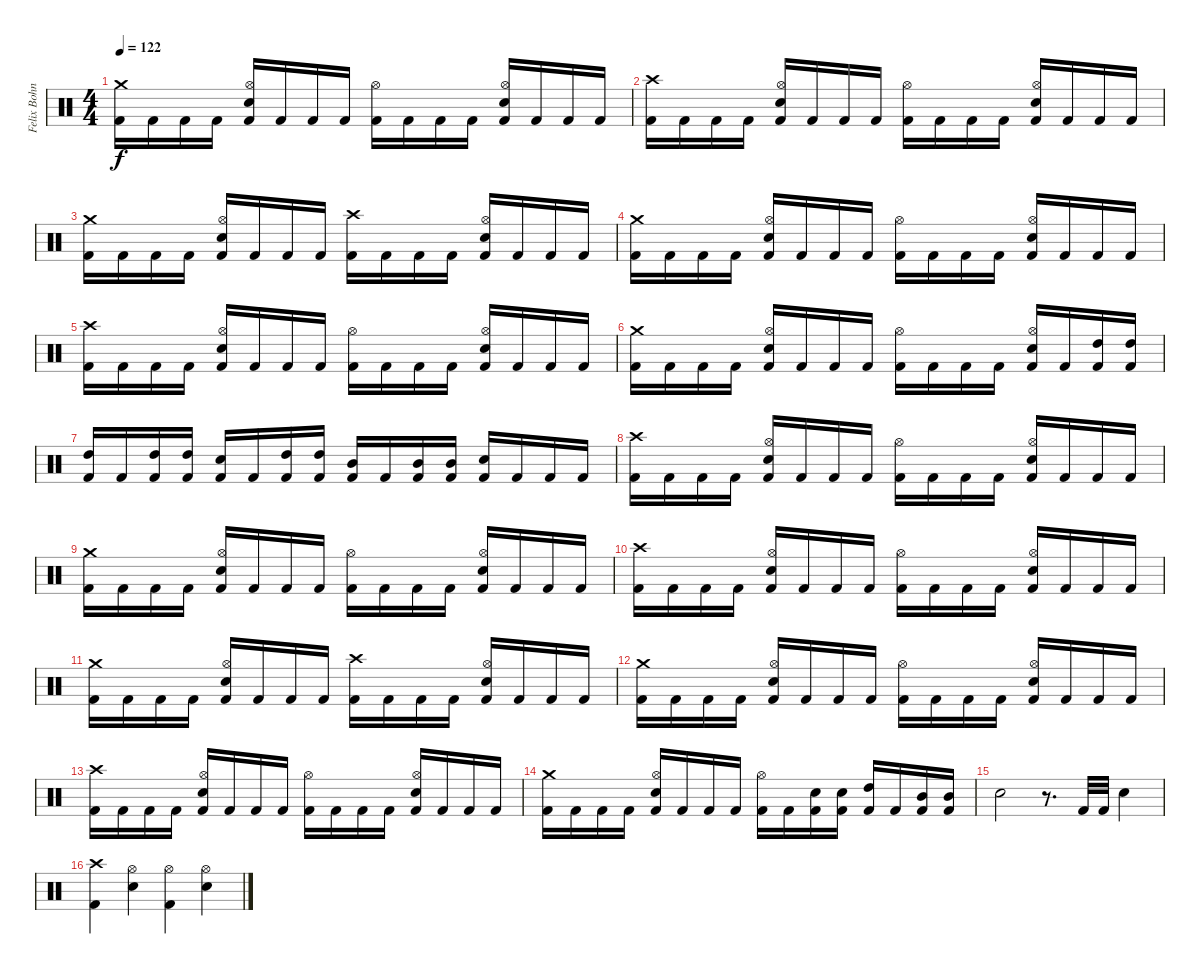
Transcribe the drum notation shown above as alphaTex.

\track ("Felix Bohnke" "Felix Bohn") {instrument percussion}
\staff {score}
\articulation defaults
\ts (4 4)
\tempo 122
\clef neutral
\ks c
("Crash medium (hit)" "Kick (hit) 2").16{dy f} "Kick (hit) 2".16 "Kick (hit) 2".16 "Kick (hit) 2".16 ("Hi-Hat (open)" "Snare (hit) 2" "Kick (hit) 2").16 "Kick (hit) 2".16 "Kick (hit) 2".16 "Kick (hit) 2".16 ("Hi-Hat (open)" "Kick (hit) 2").16 "Kick (hit) 2".16 "Kick (hit) 2".16 "Kick (hit) 2".16 ("Hi-Hat (open)" "Snare (hit) 2" "Kick (hit) 2").16 "Kick (hit) 2".16 "Kick (hit) 2".16 "Kick (hit) 2".16 |
("Crash high (hit)" "Kick (hit) 2").16 "Kick (hit) 2".16 "Kick (hit) 2".16 "Kick (hit) 2".16 ("Hi-Hat (open)" "Snare (hit) 2" "Kick (hit) 2").16 "Kick (hit) 2".16 "Kick (hit) 2".16 "Kick (hit) 2".16 ("Hi-Hat (open)" "Kick (hit) 2").16 "Kick (hit) 2".16 "Kick (hit) 2".16 "Kick (hit) 2".16 ("Hi-Hat (open)" "Snare (hit) 2" "Kick (hit) 2").16 "Kick (hit) 2".16 "Kick (hit) 2".16 "Kick (hit) 2".16 |
("Crash medium (hit)" "Kick (hit) 2").16 "Kick (hit) 2".16 "Kick (hit) 2".16 "Kick (hit) 2".16 ("Hi-Hat (open)" "Snare (hit) 2" "Kick (hit) 2").16 "Kick (hit) 2".16 "Kick (hit) 2".16 "Kick (hit) 2".16 ("Crash high (hit)" "Kick (hit) 2").16 "Kick (hit) 2".16 "Kick (hit) 2".16 "Kick (hit) 2".16 ("Hi-Hat (open)" "Snare (hit) 2" "Kick (hit) 2").16 "Kick (hit) 2".16 "Kick (hit) 2".16 "Kick (hit) 2".16 |
("Crash medium (hit)" "Kick (hit) 2").16 "Kick (hit) 2".16 "Kick (hit) 2".16 "Kick (hit) 2".16 ("Hi-Hat (open)" "Snare (hit) 2" "Kick (hit) 2").16 "Kick (hit) 2".16 "Kick (hit) 2".16 "Kick (hit) 2".16 ("Hi-Hat (open)" "Kick (hit) 2").16 "Kick (hit) 2".16 "Kick (hit) 2".16 "Kick (hit) 2".16 ("Hi-Hat (open)" "Snare (hit) 2" "Kick (hit) 2").16 "Kick (hit) 2".16 "Kick (hit) 2".16 "Kick (hit) 2".16 |
("Crash high (hit)" "Kick (hit) 2").16 "Kick (hit) 2".16 "Kick (hit) 2".16 "Kick (hit) 2".16 ("Hi-Hat (open)" "Snare (hit) 2" "Kick (hit) 2").16 "Kick (hit) 2".16 "Kick (hit) 2".16 "Kick (hit) 2".16 ("Hi-Hat (open)" "Kick (hit) 2").16 "Kick (hit) 2".16 "Kick (hit) 2".16 "Kick (hit) 2".16 ("Hi-Hat (open)" "Snare (hit) 2" "Kick (hit) 2").16 "Kick (hit) 2".16 "Kick (hit) 2".16 "Kick (hit) 2".16 |
("Crash medium (hit)" "Kick (hit) 2").16 "Kick (hit) 2".16 "Kick (hit) 2".16 "Kick (hit) 2".16 ("Hi-Hat (open)" "Snare (hit) 2" "Kick (hit) 2").16 "Kick (hit) 2".16 "Kick (hit) 2".16 "Kick (hit) 2".16 ("Hi-Hat (open)" "Kick (hit) 2").16 "Kick (hit) 2".16 "Kick (hit) 2".16 "Kick (hit) 2".16 ("Hi-Hat (open)" "Snare (hit) 2" "Kick (hit) 2").16 "Kick (hit) 2".16 ("High Tom (hit)" "Kick (hit) 2").16 ("High Tom (hit)" "Kick (hit) 2").16 |
("High Tom (hit)" "Kick (hit) 2").16 "Kick (hit) 2".16 ("High Tom (hit)" "Kick (hit) 2").16 ("High Tom (hit)" "Kick (hit) 2").16 ("Snare (hit) 2" "Kick (hit) 2").16 "Kick (hit) 2".16 ("High Tom (hit)" "Kick (hit) 2").16 ("High Tom (hit)" "Kick (hit) 2").16 ("Mid Tom (hit)" "Kick (hit) 2").16 "Kick (hit) 2".16 ("Mid Tom (hit)" "Kick (hit) 2").16 ("Mid Tom (hit)" "Kick (hit) 2").16 ("Snare (hit) 2" "Kick (hit) 2").16 "Kick (hit) 2".16 "Kick (hit) 2".16 "Kick (hit) 2".16 |
("Crash high (hit)" "Kick (hit) 2").16 "Kick (hit) 2".16 "Kick (hit) 2".16 "Kick (hit) 2".16 ("Hi-Hat (open)" "Snare (hit) 2" "Kick (hit) 2").16 "Kick (hit) 2".16 "Kick (hit) 2".16 "Kick (hit) 2".16 ("Hi-Hat (open)" "Kick (hit) 2").16 "Kick (hit) 2".16 "Kick (hit) 2".16 "Kick (hit) 2".16 ("Hi-Hat (open)" "Snare (hit) 2" "Kick (hit) 2").16 "Kick (hit) 2".16 "Kick (hit) 2".16 "Kick (hit) 2".16 |
("Crash medium (hit)" "Kick (hit) 2").16 "Kick (hit) 2".16 "Kick (hit) 2".16 "Kick (hit) 2".16 ("Hi-Hat (open)" "Snare (hit) 2" "Kick (hit) 2").16 "Kick (hit) 2".16 "Kick (hit) 2".16 "Kick (hit) 2".16 ("Hi-Hat (open)" "Kick (hit) 2").16 "Kick (hit) 2".16 "Kick (hit) 2".16 "Kick (hit) 2".16 ("Hi-Hat (open)" "Snare (hit) 2" "Kick (hit) 2").16 "Kick (hit) 2".16 "Kick (hit) 2".16 "Kick (hit) 2".16 |
("Crash high (hit)" "Kick (hit) 2").16 "Kick (hit) 2".16 "Kick (hit) 2".16 "Kick (hit) 2".16 ("Hi-Hat (open)" "Snare (hit) 2" "Kick (hit) 2").16 "Kick (hit) 2".16 "Kick (hit) 2".16 "Kick (hit) 2".16 ("Hi-Hat (open)" "Kick (hit) 2").16 "Kick (hit) 2".16 "Kick (hit) 2".16 "Kick (hit) 2".16 ("Hi-Hat (open)" "Snare (hit) 2" "Kick (hit) 2").16 "Kick (hit) 2".16 "Kick (hit) 2".16 "Kick (hit) 2".16 |
("Crash medium (hit)" "Kick (hit) 2").16 "Kick (hit) 2".16 "Kick (hit) 2".16 "Kick (hit) 2".16 ("Hi-Hat (open)" "Snare (hit) 2" "Kick (hit) 2").16 "Kick (hit) 2".16 "Kick (hit) 2".16 "Kick (hit) 2".16 ("Crash high (hit)" "Kick (hit) 2").16 "Kick (hit) 2".16 "Kick (hit) 2".16 "Kick (hit) 2".16 ("Hi-Hat (open)" "Snare (hit) 2" "Kick (hit) 2").16 "Kick (hit) 2".16 "Kick (hit) 2".16 "Kick (hit) 2".16 |
("Crash medium (hit)" "Kick (hit) 2").16 "Kick (hit) 2".16 "Kick (hit) 2".16 "Kick (hit) 2".16 ("Hi-Hat (open)" "Snare (hit) 2" "Kick (hit) 2").16 "Kick (hit) 2".16 "Kick (hit) 2".16 "Kick (hit) 2".16 ("Hi-Hat (open)" "Kick (hit) 2").16 "Kick (hit) 2".16 "Kick (hit) 2".16 "Kick (hit) 2".16 ("Hi-Hat (open)" "Snare (hit) 2" "Kick (hit) 2").16 "Kick (hit) 2".16 "Kick (hit) 2".16 "Kick (hit) 2".16 |
("Crash high (hit)" "Kick (hit) 2").16 "Kick (hit) 2".16 "Kick (hit) 2".16 "Kick (hit) 2".16 ("Hi-Hat (open)" "Snare (hit) 2" "Kick (hit) 2").16 "Kick (hit) 2".16 "Kick (hit) 2".16 "Kick (hit) 2".16 ("Hi-Hat (open)" "Kick (hit) 2").16 "Kick (hit) 2".16 "Kick (hit) 2".16 "Kick (hit) 2".16 ("Hi-Hat (open)" "Snare (hit) 2" "Kick (hit) 2").16 "Kick (hit) 2".16 "Kick (hit) 2".16 "Kick (hit) 2".16 |
("Crash medium (hit)" "Kick (hit) 2").16 "Kick (hit) 2".16 "Kick (hit) 2".16 "Kick (hit) 2".16 ("Hi-Hat (open)" "Snare (hit) 2" "Kick (hit) 2").16 "Kick (hit) 2".16 "Kick (hit) 2".16 "Kick (hit) 2".16 ("Hi-Hat (open)" "Kick (hit) 2").16 "Kick (hit) 2".16 ("Snare (hit) 2" "Kick (hit) 2").16 ("Snare (hit) 2" "Kick (hit) 2").16 ("High Tom (hit)" "Kick (hit) 2").16 "Kick (hit) 2".16 ("Mid Tom (hit)" "Kick (hit) 2").16 ("Mid Tom (hit)" "Kick (hit) 2").16 |
"Snare (hit) 2".2 r.8{d} "Kick (hit) 2".32 "Kick (hit) 2".32 "Snare (hit) 2".4 |
("Crash high (hit)" "Kick (hit) 2").4 ("Hi-Hat (open)" "Snare (hit) 2").4 ("Hi-Hat (open)" "Kick (hit) 2").4 ("Hi-Hat (open)" "Snare (hit) 2").4
